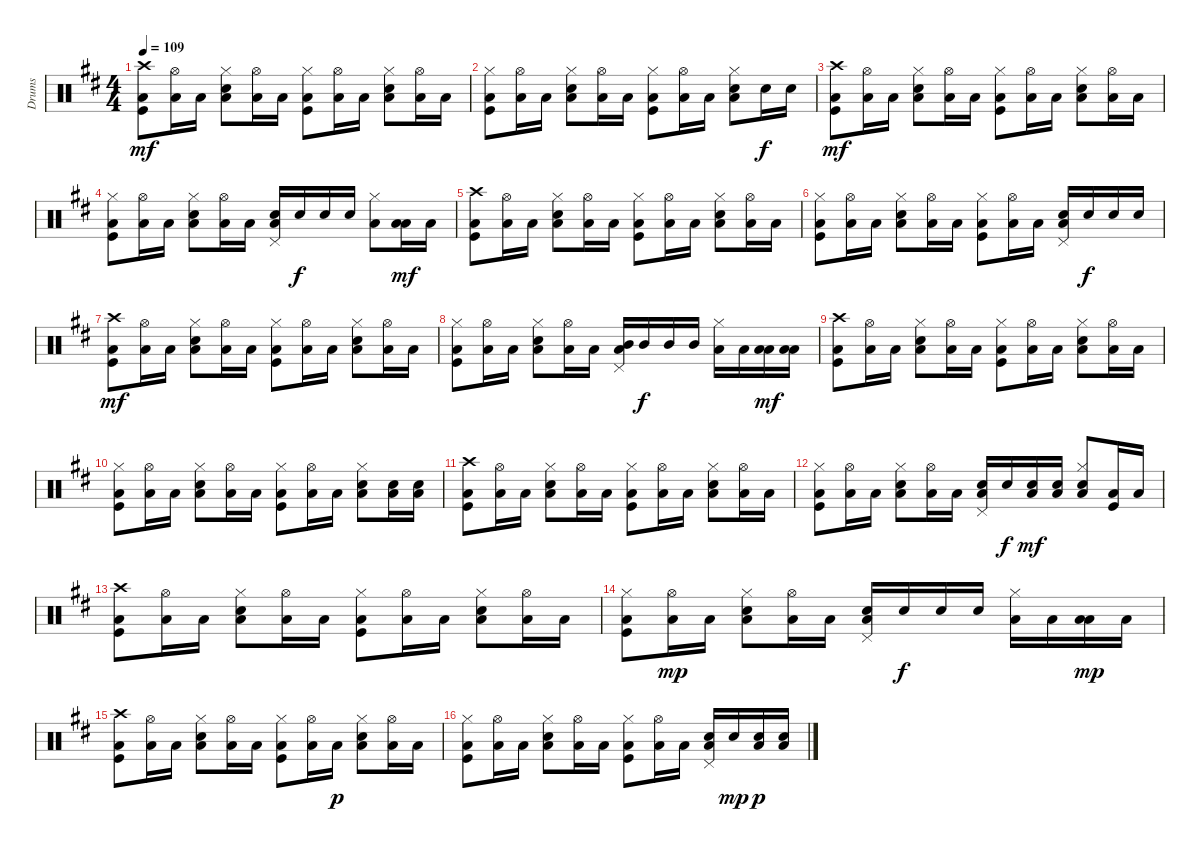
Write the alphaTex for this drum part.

\track ("Drums" "Drums") {instrument percussion}
\staff {score}
\articulation defaults
\ts (4 4)
\tempo 109
\clef neutral
\ks d
("Crash high (hit)" "Kick (hit)" "Low Tom (hit)").8{dy mf} ("Hi-Hat (open)" "Low Tom (hit)").16 "Low Tom (hit)".16 ("Hi-Hat (closed)" "Snare (hit) 2" "Low Tom (hit)").8 ("Hi-Hat (open)" "Low Tom (hit)").16 "Low Tom (hit)".16 ("Hi-Hat (closed)" "Kick (hit)" "Low Tom (hit)").8 ("Hi-Hat (open)" "Low Tom (hit)").16 "Low Tom (hit)".16 ("Hi-Hat (closed)" "Snare (hit) 2" "Low Tom (hit)").8 ("Hi-Hat (open)" "Low Tom (hit)").16 "Low Tom (hit)".16 |
("Hi-Hat (closed)" "Kick (hit)" "Low Tom (hit)").8 ("Hi-Hat (open)" "Low Tom (hit)").16 "Low Tom (hit)".16 ("Hi-Hat (closed)" "Snare (hit) 2" "Low Tom (hit)").8 ("Hi-Hat (open)" "Low Tom (hit)").16 "Low Tom (hit)".16 ("Hi-Hat (closed)" "Kick (hit)" "Low Tom (hit)").8 ("Hi-Hat (open)" "Low Tom (hit)").16 "Low Tom (hit)".16 ("Hi-Hat (closed)" "Snare (hit) 2" "Low Tom (hit)").8 "Snare (hit) 2".16{dy f} "Snare (hit) 2".16 |
("Crash high (hit)" "Kick (hit)" "Low Tom (hit)").8{dy mf} ("Hi-Hat (open)" "Low Tom (hit)").16 "Low Tom (hit)".16 ("Hi-Hat (closed)" "Snare (hit) 2" "Low Tom (hit)").8 ("Hi-Hat (open)" "Low Tom (hit)").16 "Low Tom (hit)".16 ("Hi-Hat (closed)" "Kick (hit)" "Low Tom (hit)").8 ("Hi-Hat (open)" "Low Tom (hit)").16 "Low Tom (hit)".16 ("Hi-Hat (closed)" "Snare (hit) 2" "Low Tom (hit)").8 ("Hi-Hat (open)" "Low Tom (hit)").16 "Low Tom (hit)".16 |
("Hi-Hat (closed)" "Kick (hit)" "Low Tom (hit)").8 ("Hi-Hat (open)" "Low Tom (hit)").16 "Low Tom (hit)".16 ("Hi-Hat (closed)" "Snare (hit) 2" "Low Tom (hit)").8 ("Hi-Hat (open)" "Low Tom (hit)").16 "Low Tom (hit)".16 ("Pedal Hi-Hat (hit)" "Snare (hit) 2" "Low Tom (hit)").16 "Snare (hit) 2".16{dy f} "Snare (hit) 2".16 "Snare (hit) 2".16 ("Low Tom (hit)" "Hi-Hat (closed)").8 ("Low Tom (hit)" "Low Tom (hit)").16{dy mf} "Low Tom (hit)".16 |
("Crash high (hit)" "Kick (hit)" "Low Tom (hit)").8 ("Hi-Hat (open)" "Low Tom (hit)").16 "Low Tom (hit)".16 ("Hi-Hat (closed)" "Snare (hit) 2" "Low Tom (hit)").8 ("Hi-Hat (open)" "Low Tom (hit)").16 "Low Tom (hit)".16 ("Hi-Hat (closed)" "Kick (hit)" "Low Tom (hit)").8 ("Hi-Hat (open)" "Low Tom (hit)").16 "Low Tom (hit)".16 ("Hi-Hat (closed)" "Snare (hit) 2" "Low Tom (hit)").8 ("Hi-Hat (open)" "Low Tom (hit)").16 "Low Tom (hit)".16 |
("Hi-Hat (closed)" "Kick (hit)" "Low Tom (hit)").8 ("Hi-Hat (open)" "Low Tom (hit)").16 "Low Tom (hit)".16 ("Hi-Hat (closed)" "Snare (hit) 2" "Low Tom (hit)").8 ("Hi-Hat (open)" "Low Tom (hit)").16 "Low Tom (hit)".16 ("Hi-Hat (closed)" "Kick (hit)" "Low Tom (hit)").8 ("Hi-Hat (open)" "Low Tom (hit)").16 "Low Tom (hit)".16 ("Pedal Hi-Hat (hit)" "Snare (hit) 2" "Low Tom (hit)").16 "Snare (hit) 2".16{dy f} "Snare (hit) 2".16 "Snare (hit) 2".16 |
("Crash high (hit)" "Kick (hit)" "Low Tom (hit)").8{dy mf} ("Hi-Hat (open)" "Low Tom (hit)").16 "Low Tom (hit)".16 ("Hi-Hat (closed)" "Snare (hit) 2" "Low Tom (hit)").8 ("Hi-Hat (open)" "Low Tom (hit)").16 "Low Tom (hit)".16 ("Hi-Hat (closed)" "Kick (hit)" "Low Tom (hit)").8 ("Hi-Hat (open)" "Low Tom (hit)").16 "Low Tom (hit)".16 ("Hi-Hat (closed)" "Snare (hit) 2" "Low Tom (hit)").8 ("Hi-Hat (open)" "Low Tom (hit)").16 "Low Tom (hit)".16 |
("Hi-Hat (closed)" "Kick (hit)" "Low Tom (hit)").8 ("Hi-Hat (open)" "Low Tom (hit)").16 "Low Tom (hit)".16 ("Hi-Hat (closed)" "Snare (hit) 2" "Low Tom (hit)").8 ("Hi-Hat (open)" "Low Tom (hit)").16 "Low Tom (hit)".16 ("Mid Tom (hit)" "Pedal Hi-Hat (hit)" "Low Tom (hit)").16 "Mid Tom (hit)".16{dy f} "Mid Tom (hit)".16 "Mid Tom (hit)".16 ("Low Tom (hit)" "Hi-Hat (closed)").16 "Low Tom (hit)".16 ("Low Tom (hit)" "Low Tom (hit)").16{dy mf} ("Low Tom (hit)" "Low Tom (hit)").16 |
("Crash high (hit)" "Kick (hit)" "Low Tom (hit)").8 ("Hi-Hat (open)" "Low Tom (hit)").16 "Low Tom (hit)".16 ("Hi-Hat (closed)" "Snare (hit) 2" "Low Tom (hit)").8 ("Hi-Hat (open)" "Low Tom (hit)").16 "Low Tom (hit)".16 ("Hi-Hat (closed)" "Kick (hit)" "Low Tom (hit)").8 ("Hi-Hat (open)" "Low Tom (hit)").16 "Low Tom (hit)".16 ("Hi-Hat (closed)" "Snare (hit) 2" "Low Tom (hit)").8 ("Hi-Hat (open)" "Low Tom (hit)").16 "Low Tom (hit)".16 |
("Hi-Hat (closed)" "Kick (hit)" "Low Tom (hit)").8 ("Hi-Hat (open)" "Low Tom (hit)").16 "Low Tom (hit)".16 ("Hi-Hat (closed)" "Snare (hit) 2" "Low Tom (hit)").8 ("Hi-Hat (open)" "Low Tom (hit)").16 "Low Tom (hit)".16 ("Hi-Hat (closed)" "Kick (hit)" "Low Tom (hit)").8 ("Hi-Hat (open)" "Low Tom (hit)").16 "Low Tom (hit)".16 ("Hi-Hat (closed)" "Snare (hit) 2" "Low Tom (hit)").8 ("Snare (hit) 2" "Low Tom (hit)").16 ("Snare (hit) 2" "Low Tom (hit)").16 |
("Crash high (hit)" "Kick (hit)" "Low Tom (hit)").8 ("Hi-Hat (open)" "Low Tom (hit)").16 "Low Tom (hit)".16 ("Hi-Hat (closed)" "Snare (hit) 2" "Low Tom (hit)").8 ("Hi-Hat (open)" "Low Tom (hit)").16 "Low Tom (hit)".16 ("Hi-Hat (closed)" "Kick (hit)" "Low Tom (hit)").8 ("Hi-Hat (open)" "Low Tom (hit)").16 "Low Tom (hit)".16 ("Hi-Hat (closed)" "Snare (hit) 2" "Low Tom (hit)").8 ("Hi-Hat (open)" "Low Tom (hit)").16 "Low Tom (hit)".16 |
("Hi-Hat (closed)" "Kick (hit)" "Low Tom (hit)").8 ("Hi-Hat (open)" "Low Tom (hit)").16 "Low Tom (hit)".16 ("Hi-Hat (closed)" "Snare (hit) 2" "Low Tom (hit)").8 ("Hi-Hat (open)" "Low Tom (hit)").16 "Low Tom (hit)".16 ("Pedal Hi-Hat (hit)" "Snare (hit) 2" "Low Tom (hit)").16 "Snare (hit) 2".16{dy f} ("Snare (hit) 2" "Low Tom (hit)").16{dy mf} ("Snare (hit) 2" "Low Tom (hit)").16 ("Snare (hit) 2" "Hi-Hat (closed)" "Low Tom (hit)").8 ("Kick (hit)" "Low Tom (hit)").16 "Low Tom (hit)".16 |
("Crash high (hit)" "Kick (hit)" "Low Tom (hit)").8 ("Hi-Hat (open)" "Low Tom (hit)").16 "Low Tom (hit)".16 ("Hi-Hat (closed)" "Snare (hit) 2" "Low Tom (hit)").8 ("Hi-Hat (open)" "Low Tom (hit)").16 "Low Tom (hit)".16 ("Hi-Hat (closed)" "Kick (hit)" "Low Tom (hit)").8 ("Hi-Hat (open)" "Low Tom (hit)").16 "Low Tom (hit)".16 ("Hi-Hat (closed)" "Snare (hit) 2" "Low Tom (hit)").8 ("Hi-Hat (open)" "Low Tom (hit)").16 "Low Tom (hit)".16 |
("Hi-Hat (closed)" "Kick (hit)" "Low Tom (hit)").8 ("Hi-Hat (open)" "Low Tom (hit)").16{dy mp} "Low Tom (hit)".16 ("Hi-Hat (closed)" "Snare (hit) 2" "Low Tom (hit)").8 ("Hi-Hat (open)" "Low Tom (hit)").16 "Low Tom (hit)".16 ("Pedal Hi-Hat (hit)" "Snare (hit) 2" "Low Tom (hit)").16 "Snare (hit) 2".16{dy f} "Snare (hit) 2".16 "Snare (hit) 2".16 ("Low Tom (hit)" "Hi-Hat (closed)").16 "Low Tom (hit)".16 ("Low Tom (hit)" "Low Tom (hit)").16{dy mp} "Low Tom (hit)".16 |
("Crash high (hit)" "Kick (hit)" "Low Tom (hit)").8 ("Hi-Hat (open)" "Low Tom (hit)").16 "Low Tom (hit)".16 ("Hi-Hat (closed)" "Snare (hit) 2" "Low Tom (hit)").8 ("Hi-Hat (open)" "Low Tom (hit)").16 "Low Tom (hit)".16 ("Hi-Hat (closed)" "Kick (hit)" "Low Tom (hit)").8 ("Hi-Hat (open)" "Low Tom (hit)").16 "Low Tom (hit)".16{dy p} ("Hi-Hat (closed)" "Snare (hit) 2" "Low Tom (hit)").8 ("Hi-Hat (open)" "Low Tom (hit)").16 "Low Tom (hit)".16 |
("Hi-Hat (closed)" "Kick (hit)" "Low Tom (hit)").8 ("Hi-Hat (open)" "Low Tom (hit)").16 "Low Tom (hit)".16 ("Hi-Hat (closed)" "Snare (hit) 2" "Low Tom (hit)").8 ("Hi-Hat (open)" "Low Tom (hit)").16 "Low Tom (hit)".16 ("Hi-Hat (closed)" "Kick (hit)" "Low Tom (hit)").8 ("Hi-Hat (open)" "Low Tom (hit)").16 "Low Tom (hit)".16 ("Pedal Hi-Hat (hit)" "Snare (hit) 2" "Low Tom (hit)").16 "Snare (hit) 2".16{dy mp} ("Snare (hit) 2" "Low Tom (hit)").16{dy p} ("Snare (hit) 2" "Low Tom (hit)").16
